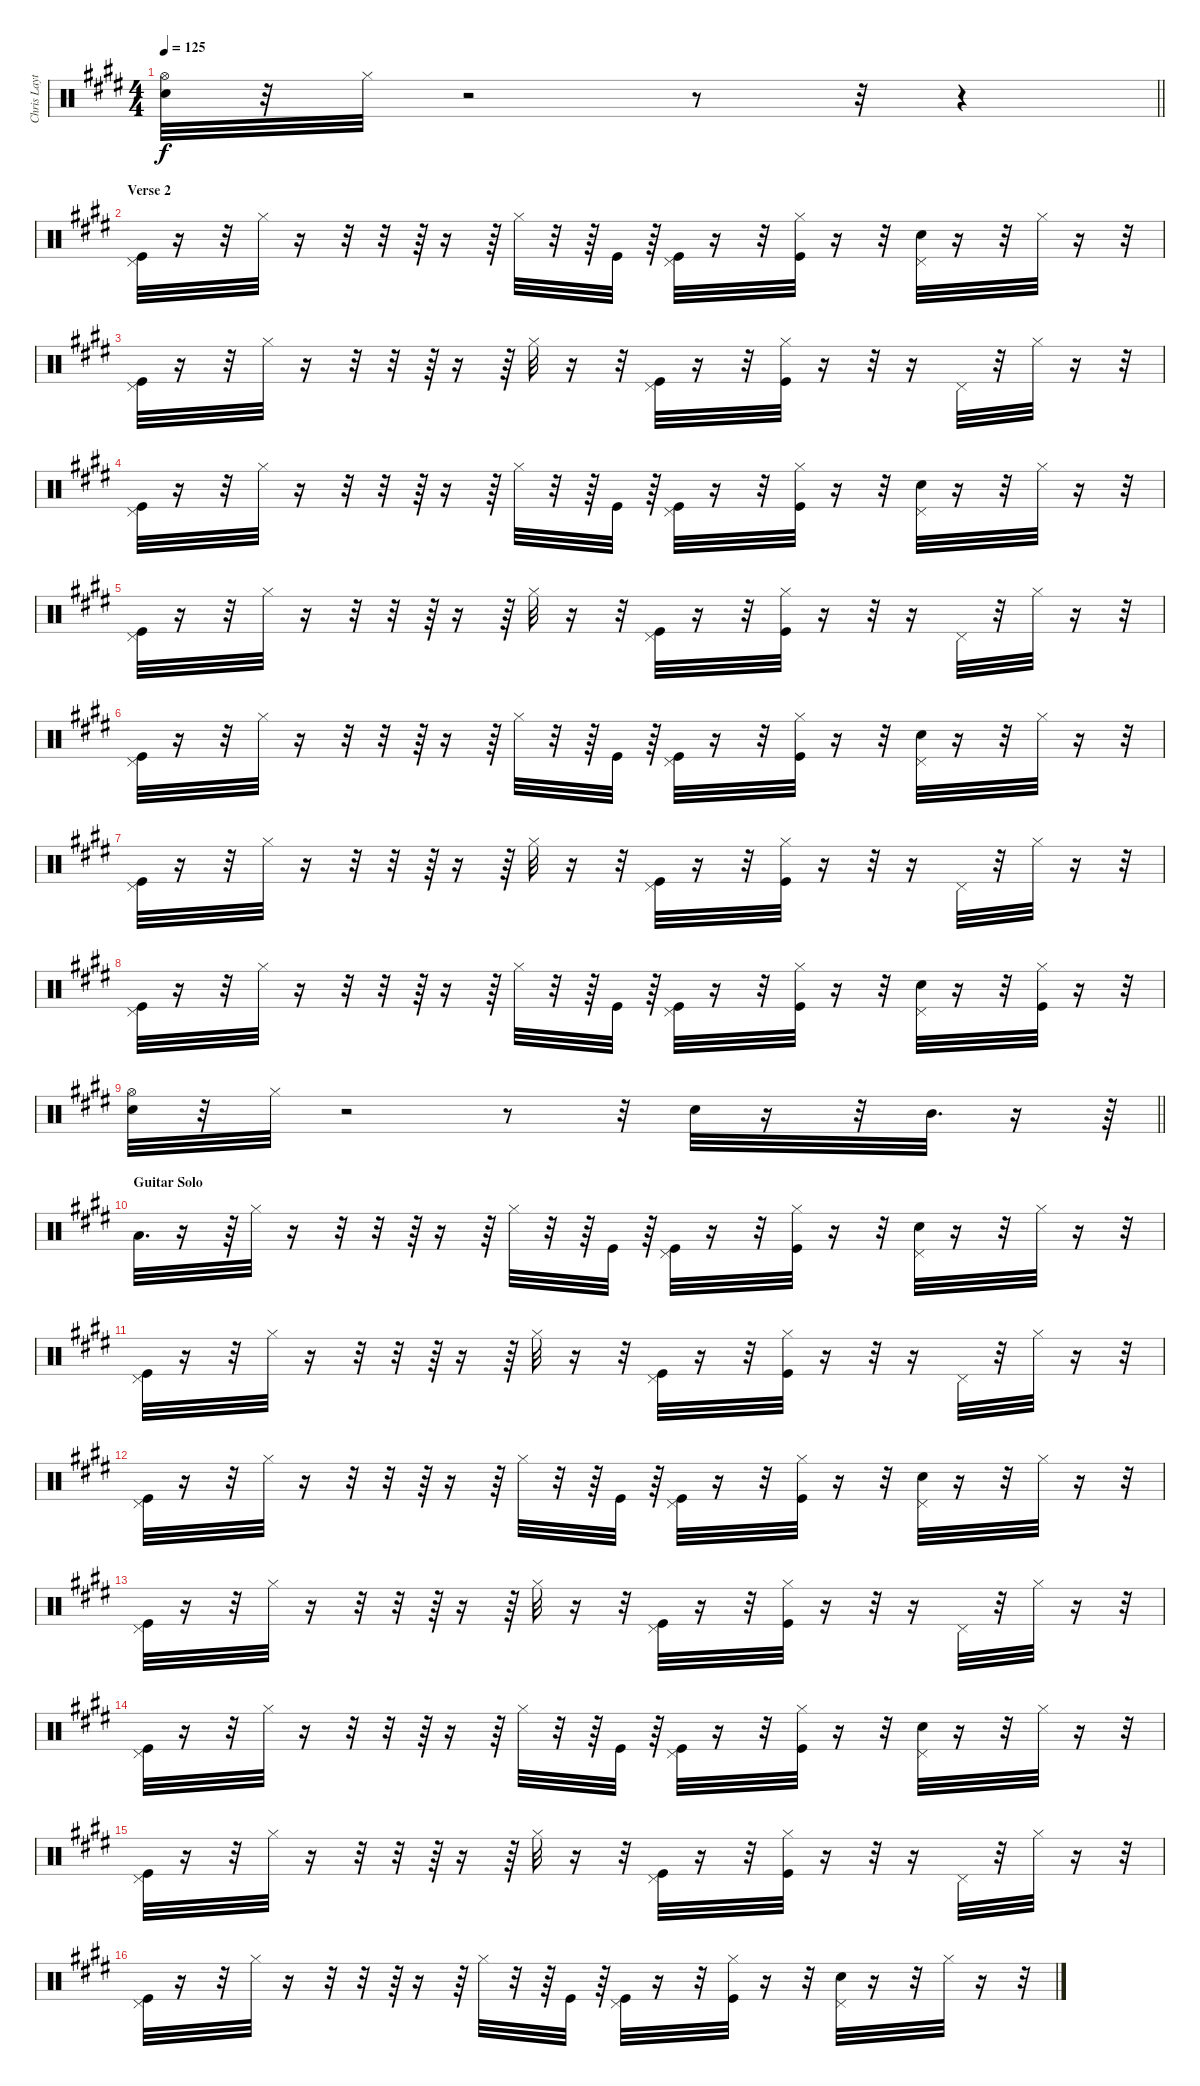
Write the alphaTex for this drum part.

\track ("Chris Layton" "Chris Layt") {instrument percussion}
\staff {score}
\articulation defaults
\ts (4 4)
\tempo 125
\clef neutral
\barLineRight lightlight
\ks e
("Hi-Hat (open)" "Snare (hit) 2").32{dy f} r.32 "Hi-Hat (closed)".32 r.2 r.8 r.32 r.4 |
\section ("" "Verse 2")
("Pedal Hi-Hat (hit)" "Kick (hit)").32 r.16 r.32 "Hi-Hat (closed)".32 r.16 r.32 r.32 r.64 r.16 r.64 "Hi-Hat (closed)".32 r.32 r.64 "Kick (hit)".32 r.64 ("Kick (hit)" "Pedal Hi-Hat (hit)").32 r.16 r.32 ("Kick (hit)" "Hi-Hat (closed)").32 r.16 r.32 ("Snare (hit) 2" "Pedal Hi-Hat (hit)").32 r.16 r.32 "Hi-Hat (closed)".32 r.16 r.32 |
("Pedal Hi-Hat (hit)" "Kick (hit)").32 r.16 r.32 "Hi-Hat (closed)".32 r.16 r.32 r.32 r.64 r.16 r.64 "Hi-Hat (closed)".32 r.16 r.32 ("Kick (hit)" "Pedal Hi-Hat (hit)").32 r.16 r.32 ("Kick (hit)" "Hi-Hat (closed)").32 r.16 r.32 r.16 "Pedal Hi-Hat (hit)".32 r.32 "Hi-Hat (closed)".32 r.16 r.32 |
("Pedal Hi-Hat (hit)" "Kick (hit)").32 r.16 r.32 "Hi-Hat (closed)".32 r.16 r.32 r.32 r.64 r.16 r.64 "Hi-Hat (closed)".32 r.32 r.64 "Kick (hit)".32 r.64 ("Kick (hit)" "Pedal Hi-Hat (hit)").32 r.16 r.32 ("Kick (hit)" "Hi-Hat (closed)").32 r.16 r.32 ("Snare (hit) 2" "Pedal Hi-Hat (hit)").32 r.16 r.32 "Hi-Hat (closed)".32 r.16 r.32 |
("Pedal Hi-Hat (hit)" "Kick (hit)").32 r.16 r.32 "Hi-Hat (closed)".32 r.16 r.32 r.32 r.64 r.16 r.64 "Hi-Hat (closed)".32 r.16 r.32 ("Kick (hit)" "Pedal Hi-Hat (hit)").32 r.16 r.32 ("Kick (hit)" "Hi-Hat (closed)").32 r.16 r.32 r.16 "Pedal Hi-Hat (hit)".32 r.32 "Hi-Hat (closed)".32 r.16 r.32 |
("Pedal Hi-Hat (hit)" "Kick (hit)").32 r.16 r.32 "Hi-Hat (closed)".32 r.16 r.32 r.32 r.64 r.16 r.64 "Hi-Hat (closed)".32 r.32 r.64 "Kick (hit)".32 r.64 ("Kick (hit)" "Pedal Hi-Hat (hit)").32 r.16 r.32 ("Kick (hit)" "Hi-Hat (closed)").32 r.16 r.32 ("Snare (hit) 2" "Pedal Hi-Hat (hit)").32 r.16 r.32 "Hi-Hat (closed)".32 r.16 r.32 |
("Pedal Hi-Hat (hit)" "Kick (hit)").32 r.16 r.32 "Hi-Hat (closed)".32 r.16 r.32 r.32 r.64 r.16 r.64 "Hi-Hat (closed)".32 r.16 r.32 ("Kick (hit)" "Pedal Hi-Hat (hit)").32 r.16 r.32 ("Kick (hit)" "Hi-Hat (closed)").32 r.16 r.32 r.16 "Pedal Hi-Hat (hit)".32 r.32 "Hi-Hat (closed)".32 r.16 r.32 |
("Pedal Hi-Hat (hit)" "Kick (hit)").32 r.16 r.32 "Hi-Hat (closed)".32 r.16 r.32 r.32 r.64 r.16 r.64 "Hi-Hat (closed)".32 r.32 r.64 "Kick (hit)".32 r.64 ("Kick (hit)" "Pedal Hi-Hat (hit)").32 r.16 r.32 ("Kick (hit)" "Hi-Hat (closed)").32 r.16 r.32 ("Snare (hit) 2" "Pedal Hi-Hat (hit)").32 r.16 r.32 ("Kick (hit)" "Hi-Hat (closed)").32 r.16 r.32 |
\barLineRight lightlight
("Hi-Hat (open)" "Snare (hit) 2").32 r.32 "Hi-Hat (closed)".32 r.2 r.8 r.32 "Snare (hit) 2".32 r.16 r.32 "Mid Tom (hit)".32{d} r.16 r.64 |
\section ("" "Guitar Solo")
"Low Tom (hit)".32{d} r.16 r.64 "Hi-Hat (closed)".32 r.16 r.32 r.32 r.64 r.16 r.64 "Hi-Hat (closed)".32 r.32 r.64 "Kick (hit)".32 r.64 ("Kick (hit)" "Pedal Hi-Hat (hit)").32 r.16 r.32 ("Kick (hit)" "Hi-Hat (closed)").32 r.16 r.32 ("Snare (hit) 2" "Pedal Hi-Hat (hit)").32 r.16 r.32 "Hi-Hat (closed)".32 r.16 r.32 |
("Pedal Hi-Hat (hit)" "Kick (hit)").32 r.16 r.32 "Hi-Hat (closed)".32 r.16 r.32 r.32 r.64 r.16 r.64 "Hi-Hat (closed)".32 r.16 r.32 ("Kick (hit)" "Pedal Hi-Hat (hit)").32 r.16 r.32 ("Kick (hit)" "Hi-Hat (closed)").32 r.16 r.32 r.16 "Pedal Hi-Hat (hit)".32 r.32 "Hi-Hat (closed)".32 r.16 r.32 |
("Pedal Hi-Hat (hit)" "Kick (hit)").32 r.16 r.32 "Hi-Hat (closed)".32 r.16 r.32 r.32 r.64 r.16 r.64 "Hi-Hat (closed)".32 r.32 r.64 "Kick (hit)".32 r.64 ("Kick (hit)" "Pedal Hi-Hat (hit)").32 r.16 r.32 ("Kick (hit)" "Hi-Hat (closed)").32 r.16 r.32 ("Snare (hit) 2" "Pedal Hi-Hat (hit)").32 r.16 r.32 "Hi-Hat (closed)".32 r.16 r.32 |
("Pedal Hi-Hat (hit)" "Kick (hit)").32 r.16 r.32 "Hi-Hat (closed)".32 r.16 r.32 r.32 r.64 r.16 r.64 "Hi-Hat (closed)".32 r.16 r.32 ("Kick (hit)" "Pedal Hi-Hat (hit)").32 r.16 r.32 ("Kick (hit)" "Hi-Hat (closed)").32 r.16 r.32 r.16 "Pedal Hi-Hat (hit)".32 r.32 "Hi-Hat (closed)".32 r.16 r.32 |
("Pedal Hi-Hat (hit)" "Kick (hit)").32 r.16 r.32 "Hi-Hat (closed)".32 r.16 r.32 r.32 r.64 r.16 r.64 "Hi-Hat (closed)".32 r.32 r.64 "Kick (hit)".32 r.64 ("Kick (hit)" "Pedal Hi-Hat (hit)").32 r.16 r.32 ("Kick (hit)" "Hi-Hat (closed)").32 r.16 r.32 ("Snare (hit) 2" "Pedal Hi-Hat (hit)").32 r.16 r.32 "Hi-Hat (closed)".32 r.16 r.32 |
("Pedal Hi-Hat (hit)" "Kick (hit)").32 r.16 r.32 "Hi-Hat (closed)".32 r.16 r.32 r.32 r.64 r.16 r.64 "Hi-Hat (closed)".32 r.16 r.32 ("Kick (hit)" "Pedal Hi-Hat (hit)").32 r.16 r.32 ("Kick (hit)" "Hi-Hat (closed)").32 r.16 r.32 r.16 "Pedal Hi-Hat (hit)".32 r.32 "Hi-Hat (closed)".32 r.16 r.32 |
("Pedal Hi-Hat (hit)" "Kick (hit)").32 r.16 r.32 "Hi-Hat (closed)".32 r.16 r.32 r.32 r.64 r.16 r.64 "Hi-Hat (closed)".32 r.32 r.64 "Kick (hit)".32 r.64 ("Kick (hit)" "Pedal Hi-Hat (hit)").32 r.16 r.32 ("Kick (hit)" "Hi-Hat (closed)").32 r.16 r.32 ("Snare (hit) 2" "Pedal Hi-Hat (hit)").32 r.16 r.32 "Hi-Hat (closed)".32 r.16 r.32
